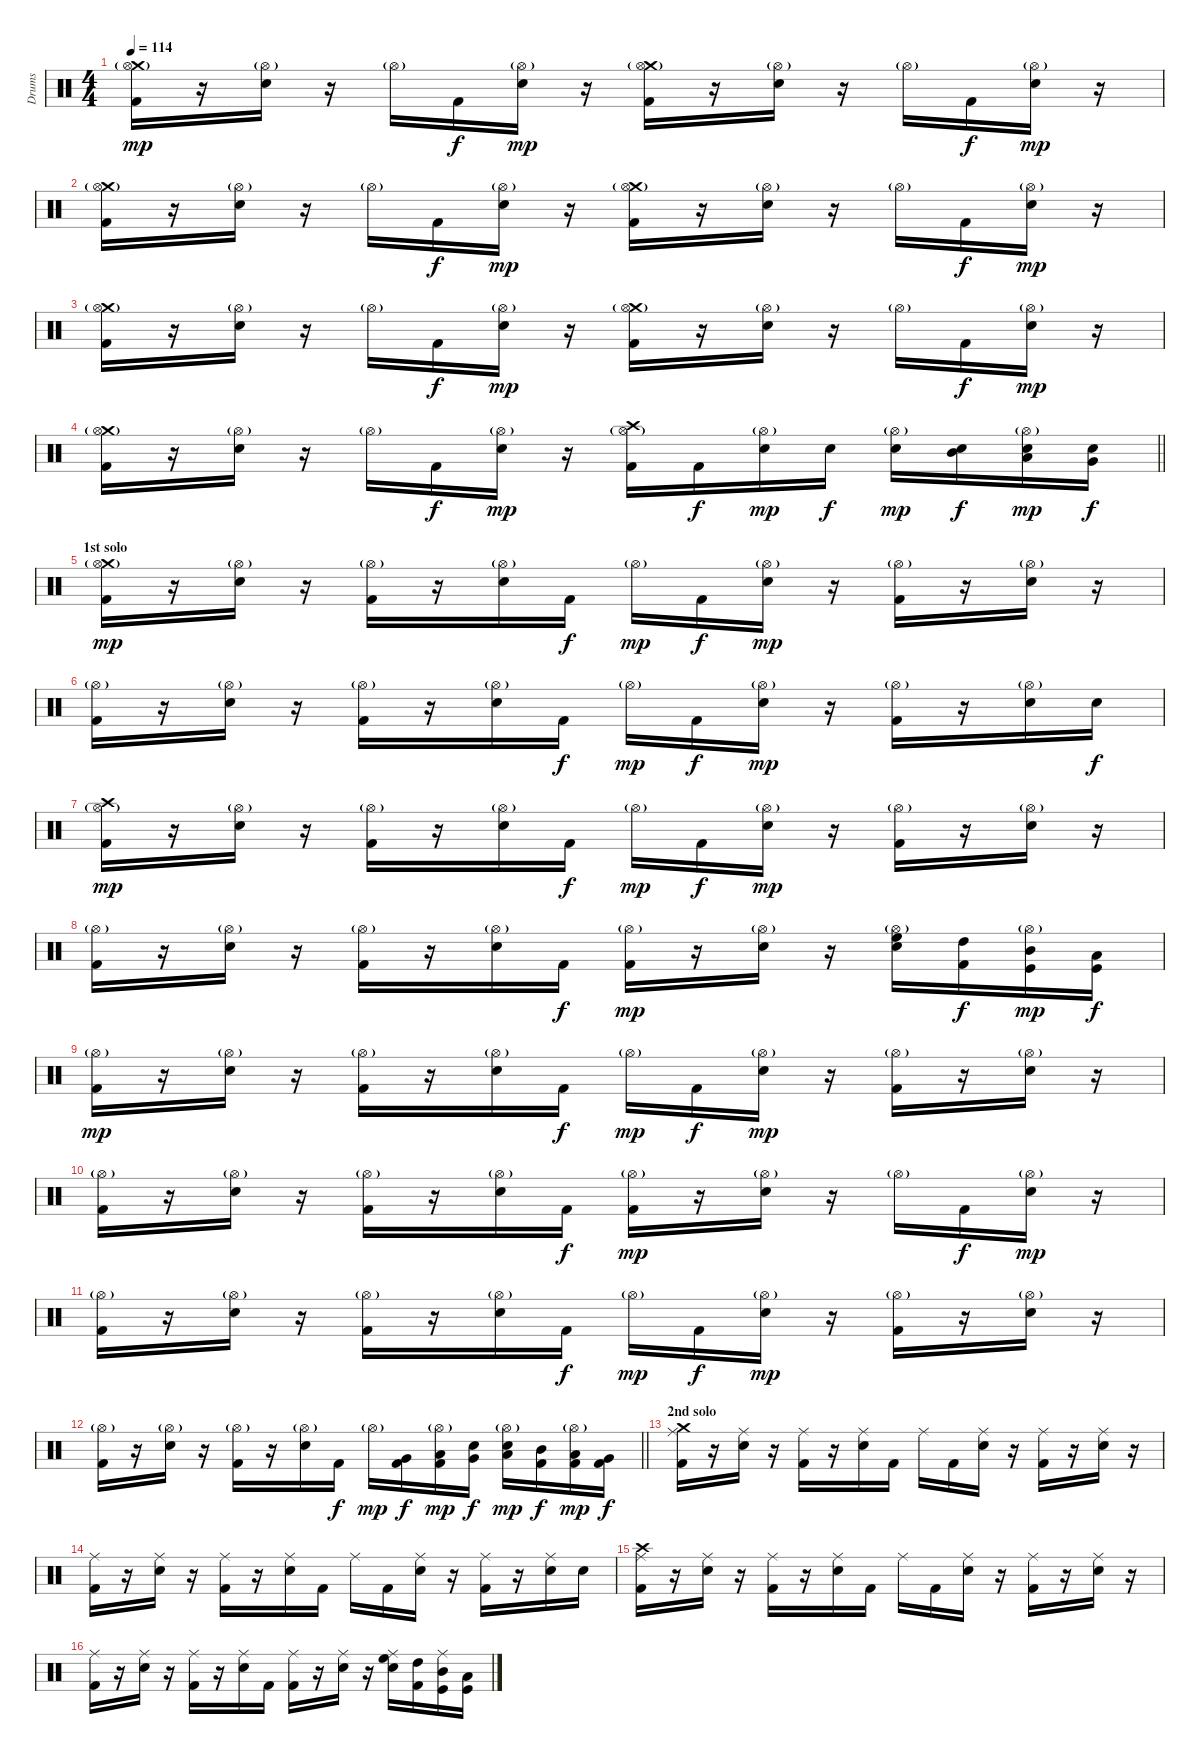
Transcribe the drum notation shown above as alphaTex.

\track ("Drums" "Drums") {instrument percussion}
\staff {score}
\articulation defaults
\ts (4 4)
\tempo 114
\clef neutral
\ks c
("Crash medium (hit)" "Hi-Hat (open)"{g} "Kick (hit) 2").16{dy mp} r.16 ("Hi-Hat (open)"{g} "Electric Snare (hit)").16 r.16 "Hi-Hat (open)"{g}.16 "Kick (hit) 2".16{dy f} ("Hi-Hat (open)"{g} "Electric Snare (hit)").16{dy mp} r.16 ("Crash medium (hit)" "Hi-Hat (open)"{g} "Kick (hit) 2").16 r.16 ("Hi-Hat (open)"{g} "Electric Snare (hit)").16 r.16 "Hi-Hat (open)"{g}.16 "Kick (hit) 2".16{dy f} ("Hi-Hat (open)"{g} "Electric Snare (hit)").16{dy mp} r.16 |
("Crash medium (hit)" "Hi-Hat (open)"{g} "Kick (hit) 2").16 r.16 ("Hi-Hat (open)"{g} "Electric Snare (hit)").16 r.16 "Hi-Hat (open)"{g}.16 "Kick (hit) 2".16{dy f} ("Hi-Hat (open)"{g} "Electric Snare (hit)").16{dy mp} r.16 ("Crash medium (hit)" "Hi-Hat (open)"{g} "Kick (hit) 2").16 r.16 ("Hi-Hat (open)"{g} "Electric Snare (hit)").16 r.16 "Hi-Hat (open)"{g}.16 "Kick (hit) 2".16{dy f} ("Hi-Hat (open)"{g} "Electric Snare (hit)").16{dy mp} r.16 |
("Crash medium (hit)" "Hi-Hat (open)"{g} "Kick (hit) 2").16 r.16 ("Hi-Hat (open)"{g} "Electric Snare (hit)").16 r.16 "Hi-Hat (open)"{g}.16 "Kick (hit) 2".16{dy f} ("Hi-Hat (open)"{g} "Electric Snare (hit)").16{dy mp} r.16 ("Crash medium (hit)" "Hi-Hat (open)"{g} "Kick (hit) 2").16 r.16 ("Hi-Hat (open)"{g} "Electric Snare (hit)").16 r.16 "Hi-Hat (open)"{g}.16 "Kick (hit) 2".16{dy f} ("Hi-Hat (open)"{g} "Electric Snare (hit)").16{dy mp} r.16 |
\barLineRight lightlight
("Crash medium (hit)" "Hi-Hat (open)"{g} "Kick (hit) 2").16 r.16 ("Hi-Hat (open)"{g} "Electric Snare (hit)").16 r.16 "Hi-Hat (open)"{g}.16 "Kick (hit) 2".16{dy f} ("Hi-Hat (open)"{g} "Electric Snare (hit)").16{dy mp} r.16 ("Crash high (hit)" "Hi-Hat (open)"{g} "Kick (hit) 2").16 "Kick (hit) 2".16{dy f} ("Hi-Hat (open)"{g} "Electric Snare (hit)").16{dy mp} "Electric Snare (hit)".16{dy f} ("Hi-Hat (open)"{g} "Electric Snare (hit)").16{dy mp} ("Mid Tom (hit)" "Electric Snare (hit)").16{dy f} ("Hi-Hat (open)"{g} "Low Tom (hit)" "Electric Snare (hit)").16{dy mp} ("Very Low Tom (hit)" "Electric Snare (hit)").16{dy f} |
\section ("" "1st solo")
("Crash medium (hit)" "Hi-Hat (open)"{g} "Kick (hit) 2").16{dy mp} r.16 ("Hi-Hat (open)"{g} "Electric Snare (hit)").16 r.16 ("Hi-Hat (open)"{g} "Kick (hit) 2").16 r.16 ("Hi-Hat (open)"{g} "Electric Snare (hit)").16 "Kick (hit) 2".16{dy f} "Hi-Hat (open)"{g}.16{dy mp} "Kick (hit) 2".16{dy f} ("Hi-Hat (open)"{g} "Electric Snare (hit)").16{dy mp} r.16 ("Hi-Hat (open)"{g} "Kick (hit) 2").16 r.16 ("Hi-Hat (open)"{g} "Electric Snare (hit)").16 r.16 |
("Hi-Hat (open)"{g} "Kick (hit) 2").16 r.16 ("Hi-Hat (open)"{g} "Electric Snare (hit)").16 r.16 ("Hi-Hat (open)"{g} "Kick (hit) 2").16 r.16 ("Hi-Hat (open)"{g} "Electric Snare (hit)").16 "Kick (hit) 2".16{dy f} "Hi-Hat (open)"{g}.16{dy mp} "Kick (hit) 2".16{dy f} ("Hi-Hat (open)"{g} "Electric Snare (hit)").16{dy mp} r.16 ("Hi-Hat (open)"{g} "Kick (hit) 2").16 r.16 ("Hi-Hat (open)"{g} "Electric Snare (hit)").16 "Electric Snare (hit)".16{dy f} |
("Crash high (hit)" "Hi-Hat (open)"{g} "Kick (hit) 2").16{dy mp} r.16 ("Hi-Hat (open)"{g} "Electric Snare (hit)").16 r.16 ("Hi-Hat (open)"{g} "Kick (hit) 2").16 r.16 ("Hi-Hat (open)"{g} "Electric Snare (hit)").16 "Kick (hit) 2".16{dy f} "Hi-Hat (open)"{g}.16{dy mp} "Kick (hit) 2".16{dy f} ("Hi-Hat (open)"{g} "Electric Snare (hit)").16{dy mp} r.16 ("Hi-Hat (open)"{g} "Kick (hit) 2").16 r.16 ("Hi-Hat (open)"{g} "Electric Snare (hit)").16 r.16 |
("Hi-Hat (open)"{g} "Kick (hit) 2").16 r.16 ("Hi-Hat (open)"{g} "Electric Snare (hit)").16 r.16 ("Hi-Hat (open)"{g} "Kick (hit) 2").16 r.16 ("Hi-Hat (open)"{g} "Electric Snare (hit)").16 "Kick (hit) 2".16{dy f} ("Hi-Hat (open)"{g} "Kick (hit) 2").16{dy mp} r.16 ("Hi-Hat (open)"{g} "Electric Snare (hit)").16 r.16 ("Hi-Hat (open)"{g} "High Floor Tom (hit)" "Electric Snare (hit)").16 ("High Tom (hit)" "Kick (hit) 2").16{dy f} ("Hi-Hat (open)"{g} "Mid Tom (hit)" "Kick (hit)").16{dy mp} ("Low Tom (hit)" "Kick (hit)").16{dy f} |
("Hi-Hat (open)"{g} "Kick (hit) 2").16{dy mp} r.16 ("Hi-Hat (open)"{g} "Electric Snare (hit)").16 r.16 ("Hi-Hat (open)"{g} "Kick (hit) 2").16 r.16 ("Hi-Hat (open)"{g} "Electric Snare (hit)").16 "Kick (hit) 2".16{dy f} "Hi-Hat (open)"{g}.16{dy mp} "Kick (hit) 2".16{dy f} ("Hi-Hat (open)"{g} "Electric Snare (hit)").16{dy mp} r.16 ("Hi-Hat (open)"{g} "Kick (hit) 2").16 r.16 ("Hi-Hat (open)"{g} "Electric Snare (hit)").16 r.16 |
("Hi-Hat (open)"{g} "Kick (hit) 2").16 r.16 ("Hi-Hat (open)"{g} "Electric Snare (hit)").16 r.16 ("Hi-Hat (open)"{g} "Kick (hit) 2").16 r.16 ("Hi-Hat (open)"{g} "Electric Snare (hit)").16 "Kick (hit) 2".16{dy f} ("Hi-Hat (open)"{g} "Kick (hit) 2").16{dy mp} r.16 ("Hi-Hat (open)"{g} "Electric Snare (hit)").16 r.16 "Hi-Hat (open)"{g}.16 "Kick (hit) 2".16{dy f} ("Hi-Hat (open)"{g} "Electric Snare (hit)").16{dy mp} r.16 |
("Hi-Hat (open)"{g} "Kick (hit) 2").16 r.16 ("Hi-Hat (open)"{g} "Electric Snare (hit)").16 r.16 ("Hi-Hat (open)"{g} "Kick (hit) 2").16 r.16 ("Hi-Hat (open)"{g} "Electric Snare (hit)").16 "Kick (hit) 2".16{dy f} "Hi-Hat (open)"{g}.16{dy mp} "Kick (hit) 2".16{dy f} ("Hi-Hat (open)"{g} "Electric Snare (hit)").16{dy mp} r.16 ("Hi-Hat (open)"{g} "Kick (hit) 2").16 r.16 ("Hi-Hat (open)"{g} "Electric Snare (hit)").16 r.16 |
\barLineRight lightlight
("Hi-Hat (open)"{g} "Kick (hit) 2").16 r.16 ("Hi-Hat (open)"{g} "Electric Snare (hit)").16 r.16 ("Hi-Hat (open)"{g} "Kick (hit) 2").16 r.16 ("Hi-Hat (open)"{g} "Electric Snare (hit)").16 "Kick (hit) 2".16{dy f} "Hi-Hat (open)"{g}.16{dy mp} ("Very Low Tom (hit)" "Kick (hit) 2").16{dy f} ("Hi-Hat (open)"{g} "Low Floor Tom (hit)" "Kick (hit) 2").16{dy mp} ("Very Low Tom (hit)" "Electric Snare (hit)").16{dy f} ("Hi-Hat (open)"{g} "Low Tom (hit)" "Electric Snare (hit)").16{dy mp} ("Mid Tom (hit)" "Kick (hit) 2").16{dy f} ("Hi-Hat (open)"{g} "Low Tom (hit)" "Kick (hit) 2").16{dy mp} ("Very Low Tom (hit)" "Kick (hit) 2").16{dy f} |
\section ("" "2nd solo")
("Crash medium (hit)" "Ride (middle)" "Kick (hit) 2").16 r.16 ("Ride (middle)" "Electric Snare (hit)").16 r.16 ("Ride (middle)" "Kick (hit) 2").16 r.16 ("Ride (middle)" "Electric Snare (hit)").16 "Kick (hit) 2".16 "Ride (middle)".16 "Kick (hit) 2".16 ("Ride (middle)" "Electric Snare (hit)").16 r.16 ("Ride (middle)" "Kick (hit) 2").16 r.16 ("Ride (middle)" "Electric Snare (hit)").16 r.16 |
("Ride (middle)" "Kick (hit) 2").16 r.16 ("Ride (middle)" "Electric Snare (hit)").16 r.16 ("Ride (middle)" "Kick (hit) 2").16 r.16 ("Ride (middle)" "Electric Snare (hit)").16 "Kick (hit) 2".16 "Ride (middle)".16 "Kick (hit) 2".16 ("Ride (middle)" "Electric Snare (hit)").16 r.16 ("Ride (middle)" "Kick (hit) 2").16 r.16 ("Ride (middle)" "Electric Snare (hit)").16 "Electric Snare (hit)".16 |
("Crash high (hit)" "Ride (middle)" "Kick (hit) 2").16 r.16 ("Ride (middle)" "Electric Snare (hit)").16 r.16 ("Ride (middle)" "Kick (hit) 2").16 r.16 ("Ride (middle)" "Electric Snare (hit)").16 "Kick (hit) 2".16 "Ride (middle)".16 "Kick (hit) 2".16 ("Ride (middle)" "Electric Snare (hit)").16 r.16 ("Ride (middle)" "Kick (hit) 2").16 r.16 ("Ride (middle)" "Electric Snare (hit)").16 r.16 |
("Ride (middle)" "Kick (hit) 2").16 r.16 ("Ride (middle)" "Electric Snare (hit)").16 r.16 ("Ride (middle)" "Kick (hit) 2").16 r.16 ("Ride (middle)" "Electric Snare (hit)").16 "Kick (hit) 2".16 ("Ride (middle)" "Kick (hit) 2").16 r.16 ("Ride (middle)" "Electric Snare (hit)").16 r.16 ("Ride (middle)" "High Floor Tom (hit)" "Electric Snare (hit)").16 ("High Tom (hit)" "Kick (hit) 2").16 ("Ride (middle)" "Mid Tom (hit)" "Kick (hit)").16 ("Low Tom (hit)" "Kick (hit)").16
